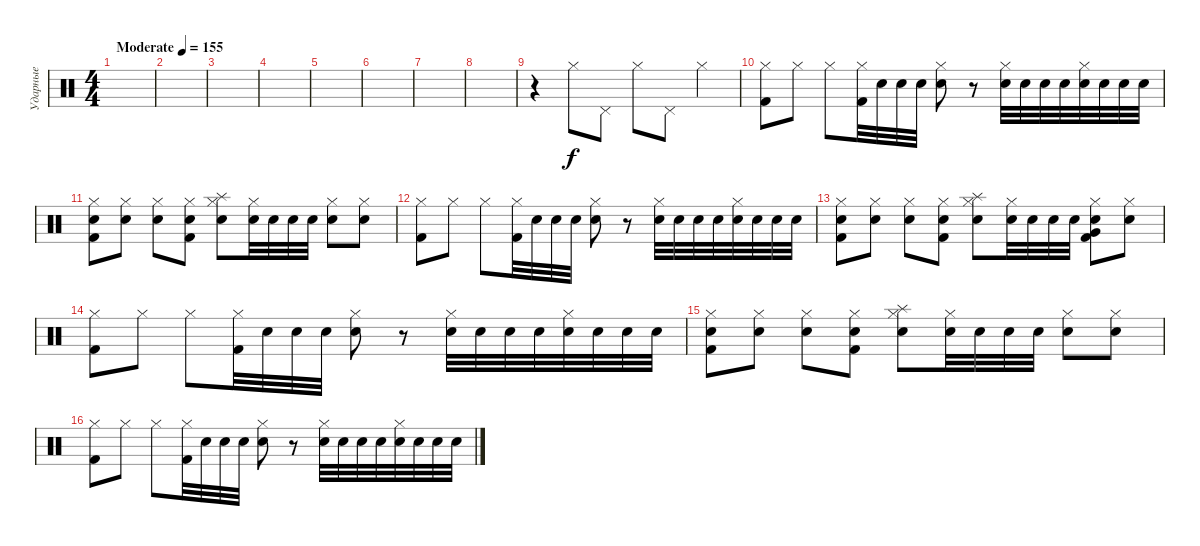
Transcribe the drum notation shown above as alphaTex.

\track ("Ударные" "Ударные") {instrument percussion}
\staff {score}
\articulation defaults
\ts (4 4)
\tempo (155 "Moderate")
\clef neutral
\ks c
|
|
|
|
|
|
|
|
r.4 "Hi-Hat (closed)".8 "Pedal Hi-Hat (hit)".8 "Hi-Hat (closed)".8 "Pedal Hi-Hat (hit)".8 "Hi-Hat (closed)".4 |
("Hi-Hat (closed)" "Kick (hit) 2").8 "Hi-Hat (closed)".8 "Hi-Hat (closed)".8 ("Hi-Hat (closed)" "Kick (hit) 2").32 "Electric Snare (hit)".32 "Electric Snare (hit)".32 "Electric Snare (hit)".32 ("Hi-Hat (closed)" "Electric Snare (hit)").8 r.8 ("Hi-Hat (closed)" "Electric Snare (hit)").32 "Electric Snare (hit)".32 "Electric Snare (hit)".32 "Electric Snare (hit)".32 ("Hi-Hat (closed)" "Electric Snare (hit)").32 "Electric Snare (hit)".32 "Electric Snare (hit)".32 "Electric Snare (hit)".32 |
("Hi-Hat (closed)" "Electric Snare (hit)" "Kick (hit) 2").8 ("Hi-Hat (closed)" "Electric Snare (hit)").8 ("Hi-Hat (closed)" "Electric Snare (hit)").8 ("Hi-Hat (closed)" "Electric Snare (hit)" "Kick (hit) 2").8 ("Hi-Hat (closed)" "Splash (hit)" "Electric Snare (hit)").8 ("Hi-Hat (closed)" "Electric Snare (hit)").32 "Electric Snare (hit)".32 "Electric Snare (hit)".32 "Electric Snare (hit)".32 ("Hi-Hat (closed)" "Electric Snare (hit)").8 ("Hi-Hat (closed)" "Electric Snare (hit)").8 |
("Hi-Hat (closed)" "Kick (hit) 2").8 "Hi-Hat (closed)".8 "Hi-Hat (closed)".8 ("Hi-Hat (closed)" "Kick (hit) 2").32 "Electric Snare (hit)".32 "Electric Snare (hit)".32 "Electric Snare (hit)".32 ("Hi-Hat (closed)" "Electric Snare (hit)").8 r.8 ("Hi-Hat (closed)" "Electric Snare (hit)").32 "Electric Snare (hit)".32 "Electric Snare (hit)".32 "Electric Snare (hit)".32 ("Hi-Hat (closed)" "Electric Snare (hit)").32 "Electric Snare (hit)".32 "Electric Snare (hit)".32 "Electric Snare (hit)".32 |
("Hi-Hat (closed)" "Electric Snare (hit)" "Kick (hit) 2").8 ("Hi-Hat (closed)" "Electric Snare (hit)").8 ("Hi-Hat (closed)" "Electric Snare (hit)").8 ("Hi-Hat (closed)" "Electric Snare (hit)" "Kick (hit) 2").8 ("Hi-Hat (closed)" "Splash (hit)" "Electric Snare (hit)").8 ("Hi-Hat (closed)" "Electric Snare (hit)").32 "Electric Snare (hit)".32 "Electric Snare (hit)".32 "Electric Snare (hit)".32 ("Hi-Hat (closed)" "Electric Snare (hit)" "Very Low Tom (hit)" "Kick (hit) 2").8 ("Hi-Hat (closed)" "Electric Snare (hit)").8 |
("Hi-Hat (closed)" "Kick (hit) 2").8 "Hi-Hat (closed)".8 "Hi-Hat (closed)".8 ("Hi-Hat (closed)" "Kick (hit) 2").32 "Electric Snare (hit)".32 "Electric Snare (hit)".32 "Electric Snare (hit)".32 ("Hi-Hat (closed)" "Electric Snare (hit)").8 r.8 ("Hi-Hat (closed)" "Electric Snare (hit)").32 "Electric Snare (hit)".32 "Electric Snare (hit)".32 "Electric Snare (hit)".32 ("Hi-Hat (closed)" "Electric Snare (hit)").32 "Electric Snare (hit)".32 "Electric Snare (hit)".32 "Electric Snare (hit)".32 |
("Hi-Hat (closed)" "Electric Snare (hit)" "Kick (hit) 2").8 ("Hi-Hat (closed)" "Electric Snare (hit)").8 ("Hi-Hat (closed)" "Electric Snare (hit)").8 ("Hi-Hat (closed)" "Electric Snare (hit)" "Kick (hit) 2").8 ("Hi-Hat (closed)" "Splash (hit)" "Electric Snare (hit)").8 ("Hi-Hat (closed)" "Electric Snare (hit)").32 "Electric Snare (hit)".32 "Electric Snare (hit)".32 "Electric Snare (hit)".32 ("Hi-Hat (closed)" "Electric Snare (hit)").8 ("Hi-Hat (closed)" "Electric Snare (hit)").8 |
("Hi-Hat (closed)" "Kick (hit) 2").8 "Hi-Hat (closed)".8 "Hi-Hat (closed)".8 ("Hi-Hat (closed)" "Kick (hit) 2").32 "Electric Snare (hit)".32 "Electric Snare (hit)".32 "Electric Snare (hit)".32 ("Hi-Hat (closed)" "Electric Snare (hit)").8 r.8 ("Hi-Hat (closed)" "Electric Snare (hit)").32 "Electric Snare (hit)".32 "Electric Snare (hit)".32 "Electric Snare (hit)".32 ("Hi-Hat (closed)" "Electric Snare (hit)").32 "Electric Snare (hit)".32 "Electric Snare (hit)".32 "Electric Snare (hit)".32
